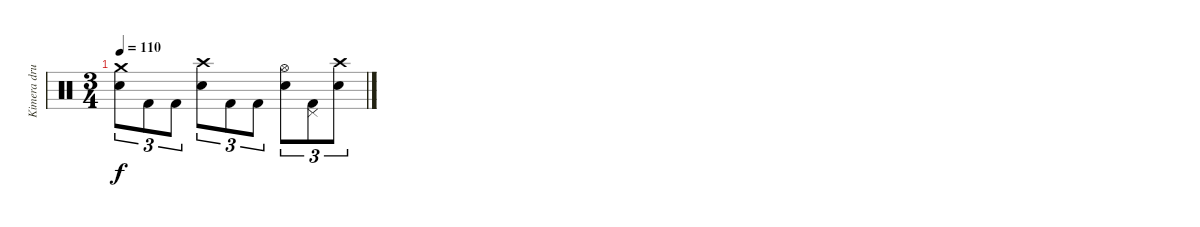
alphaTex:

\track ("Kimera drummer" "Kimera dru") {instrument percussion}
\staff {score}
\articulation defaults
\ts (3 4)
\tempo 110
\clef neutral
\ks c
("Crash medium (hit)" "Electric Snare (hit)").8{tu (3 2) dy f} "Kick (hit) 2".8{tu (3 2)} "Kick (hit) 2".8{tu (3 2)} ("Crash high (hit)" "Electric Snare (hit)").8{tu (3 2)} "Kick (hit) 2".8{tu (3 2)} "Kick (hit) 2".8{tu (3 2)} ("Hi-Hat (open)" "Electric Snare (hit)").8{tu (3 2)} ("Pedal Hi-Hat (hit)" "Kick (hit) 2").8{tu (3 2)} ("Crash high (hit)" "Electric Snare (hit)").8{tu (3 2)}
